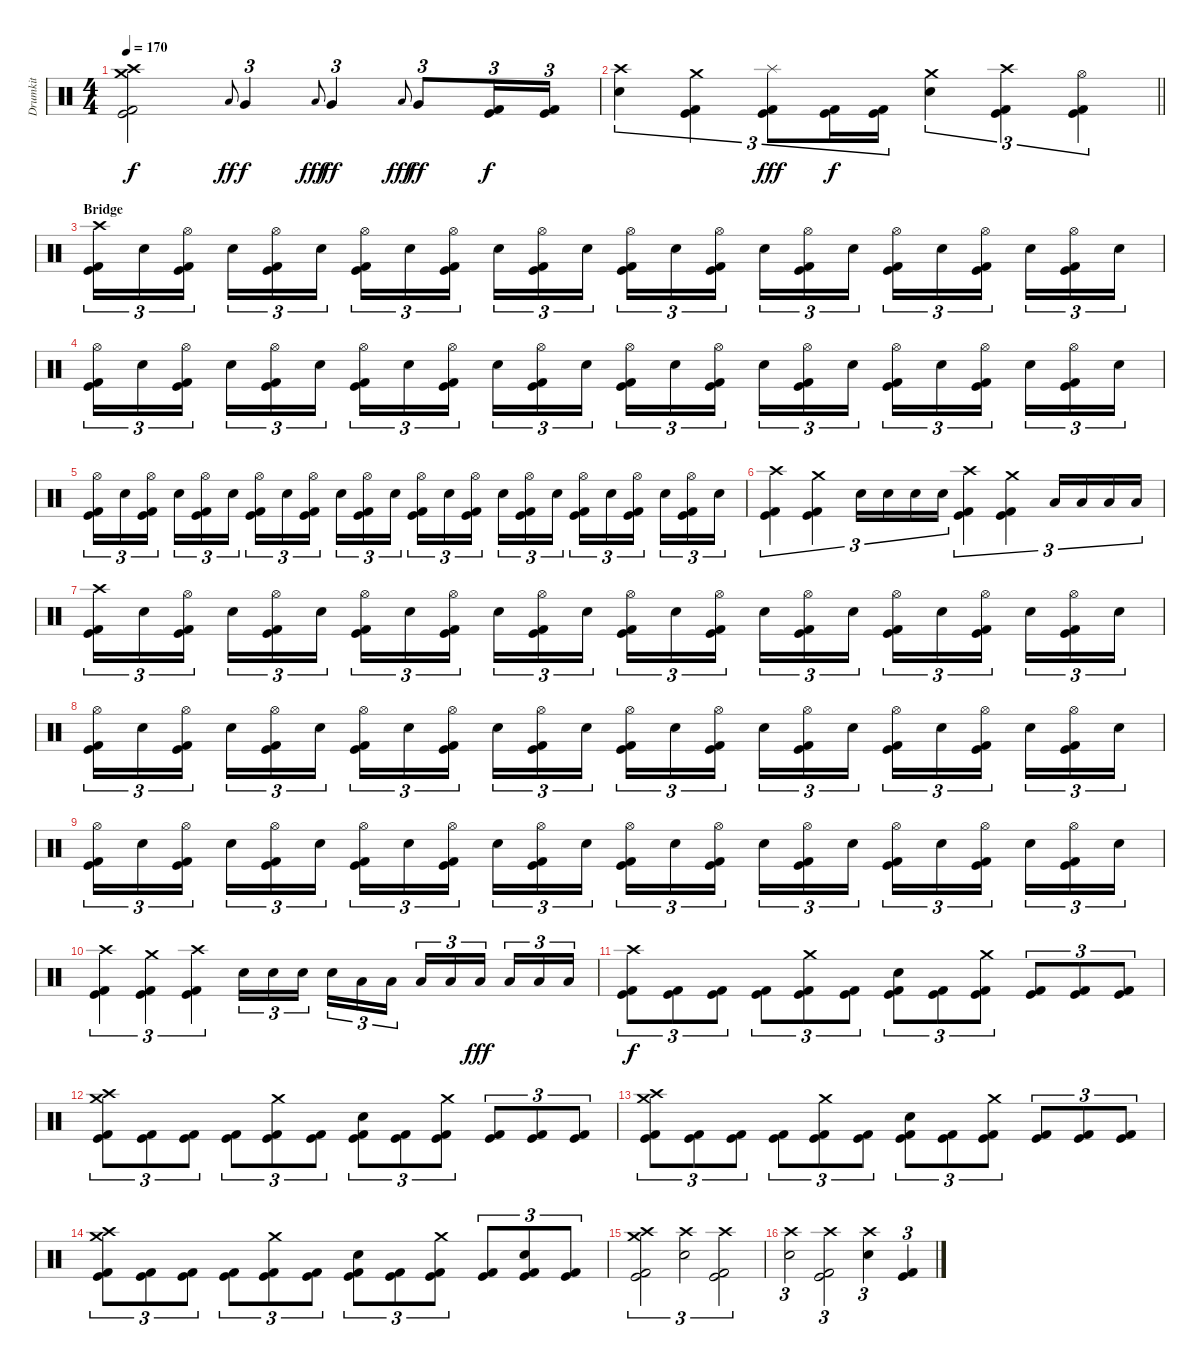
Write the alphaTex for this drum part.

\track ("Drumkit" "Drumkit") {instrument percussion}
\staff {score}
\articulation defaults
\ts (4 4)
\tempo 170
\clef neutral
\ks c
("Crash high (hit)" "Crash medium (hit)" "Kick (hit)" "Kick (hit) 2").2{dy f} "Low Floor Tom (hit)".8{gr onbeat dy ff} "Very Low Tom (hit)".4{tu (3 2) dy f} "Low Floor Tom (hit)".8{gr onbeat dy fff} "Very Low Tom (hit)".4{tu (3 2) dy ff} "Low Floor Tom (hit)".8{gr onbeat dy fff} "Very Low Tom (hit)".8{tu (3 2) dy ff} ("Kick (hit)" "Kick (hit) 2").16{tu (3 2) dy f} ("Kick (hit)" "Kick (hit) 2").16{tu (3 2)} |
\barLineRight lightlight
("Crash high (hit)" "Electric Snare (hit)").4{tu (3 2)} ("Crash medium (hit)" "Kick (hit)" "Kick (hit) 2").4{tu (3 2)} ("Splash (hit)" "Kick (hit)" "Kick (hit) 2").8{tu (3 2) dy fff} ("Kick (hit)" "Kick (hit) 2").16{tu (3 2) dy f} ("Kick (hit)" "Kick (hit) 2").16{tu (3 2)} ("Crash medium (hit)" "Electric Snare (hit)").4{tu (3 2)} ("Crash high (hit)" "Kick (hit)" "Kick (hit) 2").4{tu (3 2)} ("Hi-Hat (open)" "Kick (hit)" "Kick (hit) 2").4{tu (3 2)} |
\section ("" "Bridge")
("Crash high (hit)" "Kick (hit)" "Kick (hit) 2").16{tu (3 2)} "Electric Snare (hit)".16{tu (3 2)} ("Hi-Hat (open)" "Kick (hit)" "Kick (hit) 2").16{tu (3 2) beam splitsecondary} "Electric Snare (hit)".16{tu (3 2)} ("Hi-Hat (open)" "Kick (hit)" "Kick (hit) 2").16{tu (3 2)} "Electric Snare (hit)".16{tu (3 2)} ("Hi-Hat (open)" "Kick (hit)" "Kick (hit) 2").16{tu (3 2)} "Electric Snare (hit)".16{tu (3 2)} ("Hi-Hat (open)" "Kick (hit)" "Kick (hit) 2").16{tu (3 2) beam splitsecondary} "Electric Snare (hit)".16{tu (3 2)} ("Hi-Hat (open)" "Kick (hit)" "Kick (hit) 2").16{tu (3 2)} "Electric Snare (hit)".16{tu (3 2)} ("Hi-Hat (open)" "Kick (hit)" "Kick (hit) 2").16{tu (3 2)} "Electric Snare (hit)".16{tu (3 2)} ("Hi-Hat (open)" "Kick (hit)" "Kick (hit) 2").16{tu (3 2) beam splitsecondary} "Electric Snare (hit)".16{tu (3 2)} ("Hi-Hat (open)" "Kick (hit)" "Kick (hit) 2").16{tu (3 2)} "Electric Snare (hit)".16{tu (3 2)} ("Hi-Hat (open)" "Kick (hit)" "Kick (hit) 2").16{tu (3 2)} "Electric Snare (hit)".16{tu (3 2)} ("Hi-Hat (open)" "Kick (hit)" "Kick (hit) 2").16{tu (3 2) beam splitsecondary} "Electric Snare (hit)".16{tu (3 2)} ("Hi-Hat (open)" "Kick (hit)" "Kick (hit) 2").16{tu (3 2)} "Electric Snare (hit)".16{tu (3 2)} |
("Hi-Hat (open)" "Kick (hit)" "Kick (hit) 2").16{tu (3 2)} "Electric Snare (hit)".16{tu (3 2)} ("Hi-Hat (open)" "Kick (hit)" "Kick (hit) 2").16{tu (3 2) beam splitsecondary} "Electric Snare (hit)".16{tu (3 2)} ("Hi-Hat (open)" "Kick (hit)" "Kick (hit) 2").16{tu (3 2)} "Electric Snare (hit)".16{tu (3 2)} ("Hi-Hat (open)" "Kick (hit)" "Kick (hit) 2").16{tu (3 2)} "Electric Snare (hit)".16{tu (3 2)} ("Hi-Hat (open)" "Kick (hit)" "Kick (hit) 2").16{tu (3 2) beam splitsecondary} "Electric Snare (hit)".16{tu (3 2)} ("Hi-Hat (open)" "Kick (hit)" "Kick (hit) 2").16{tu (3 2)} "Electric Snare (hit)".16{tu (3 2)} ("Hi-Hat (open)" "Kick (hit)" "Kick (hit) 2").16{tu (3 2)} "Electric Snare (hit)".16{tu (3 2)} ("Hi-Hat (open)" "Kick (hit)" "Kick (hit) 2").16{tu (3 2) beam splitsecondary} "Electric Snare (hit)".16{tu (3 2)} ("Hi-Hat (open)" "Kick (hit)" "Kick (hit) 2").16{tu (3 2)} "Electric Snare (hit)".16{tu (3 2)} ("Hi-Hat (open)" "Kick (hit)" "Kick (hit) 2").16{tu (3 2)} "Electric Snare (hit)".16{tu (3 2)} ("Hi-Hat (open)" "Kick (hit)" "Kick (hit) 2").16{tu (3 2) beam splitsecondary} "Electric Snare (hit)".16{tu (3 2)} ("Hi-Hat (open)" "Kick (hit)" "Kick (hit) 2").16{tu (3 2)} "Electric Snare (hit)".16{tu (3 2)} |
("Hi-Hat (open)" "Kick (hit)" "Kick (hit) 2").16{tu (3 2)} "Electric Snare (hit)".16{tu (3 2)} ("Hi-Hat (open)" "Kick (hit)" "Kick (hit) 2").16{tu (3 2) beam splitsecondary} "Electric Snare (hit)".16{tu (3 2)} ("Hi-Hat (open)" "Kick (hit)" "Kick (hit) 2").16{tu (3 2)} "Electric Snare (hit)".16{tu (3 2)} ("Hi-Hat (open)" "Kick (hit)" "Kick (hit) 2").16{tu (3 2)} "Electric Snare (hit)".16{tu (3 2)} ("Hi-Hat (open)" "Kick (hit)" "Kick (hit) 2").16{tu (3 2) beam splitsecondary} "Electric Snare (hit)".16{tu (3 2)} ("Hi-Hat (open)" "Kick (hit)" "Kick (hit) 2").16{tu (3 2)} "Electric Snare (hit)".16{tu (3 2)} ("Hi-Hat (open)" "Kick (hit)" "Kick (hit) 2").16{tu (3 2)} "Electric Snare (hit)".16{tu (3 2)} ("Hi-Hat (open)" "Kick (hit)" "Kick (hit) 2").16{tu (3 2) beam splitsecondary} "Electric Snare (hit)".16{tu (3 2)} ("Hi-Hat (open)" "Kick (hit)" "Kick (hit) 2").16{tu (3 2)} "Electric Snare (hit)".16{tu (3 2)} ("Hi-Hat (open)" "Kick (hit)" "Kick (hit) 2").16{tu (3 2)} "Electric Snare (hit)".16{tu (3 2)} ("Hi-Hat (open)" "Kick (hit)" "Kick (hit) 2").16{tu (3 2) beam splitsecondary} "Electric Snare (hit)".16{tu (3 2)} ("Hi-Hat (open)" "Kick (hit)" "Kick (hit) 2").16{tu (3 2)} "Electric Snare (hit)".16{tu (3 2)} |
("Crash high (hit)" "Kick (hit)" "Kick (hit) 2").4{tu (3 2)} ("Crash medium (hit)" "Kick (hit)" "Kick (hit) 2").4{tu (3 2)} "Electric Snare (hit)".16{tu (3 2)} "Electric Snare (hit)".16{tu (3 2)} "Electric Snare (hit)".16{tu (3 2)} "Electric Snare (hit)".16{tu (3 2)} ("Crash high (hit)" "Kick (hit)" "Kick (hit) 2").4{tu (3 2)} ("Crash medium (hit)" "Kick (hit)" "Kick (hit) 2").4{tu (3 2)} "Low Tom (hit)".16{tu (3 2)} "Low Tom (hit)".16{tu (3 2)} "Low Tom (hit)".16{tu (3 2)} "Low Tom (hit)".16{tu (3 2)} |
("Crash high (hit)" "Kick (hit)" "Kick (hit) 2").16{tu (3 2)} "Electric Snare (hit)".16{tu (3 2)} ("Hi-Hat (open)" "Kick (hit)" "Kick (hit) 2").16{tu (3 2) beam splitsecondary} "Electric Snare (hit)".16{tu (3 2)} ("Hi-Hat (open)" "Kick (hit)" "Kick (hit) 2").16{tu (3 2)} "Electric Snare (hit)".16{tu (3 2)} ("Hi-Hat (open)" "Kick (hit)" "Kick (hit) 2").16{tu (3 2)} "Electric Snare (hit)".16{tu (3 2)} ("Hi-Hat (open)" "Kick (hit)" "Kick (hit) 2").16{tu (3 2) beam splitsecondary} "Electric Snare (hit)".16{tu (3 2)} ("Hi-Hat (open)" "Kick (hit)" "Kick (hit) 2").16{tu (3 2)} "Electric Snare (hit)".16{tu (3 2)} ("Hi-Hat (open)" "Kick (hit)" "Kick (hit) 2").16{tu (3 2)} "Electric Snare (hit)".16{tu (3 2)} ("Hi-Hat (open)" "Kick (hit)" "Kick (hit) 2").16{tu (3 2) beam splitsecondary} "Electric Snare (hit)".16{tu (3 2)} ("Hi-Hat (open)" "Kick (hit)" "Kick (hit) 2").16{tu (3 2)} "Electric Snare (hit)".16{tu (3 2)} ("Hi-Hat (open)" "Kick (hit)" "Kick (hit) 2").16{tu (3 2)} "Electric Snare (hit)".16{tu (3 2)} ("Hi-Hat (open)" "Kick (hit)" "Kick (hit) 2").16{tu (3 2) beam splitsecondary} "Electric Snare (hit)".16{tu (3 2)} ("Hi-Hat (open)" "Kick (hit)" "Kick (hit) 2").16{tu (3 2)} "Electric Snare (hit)".16{tu (3 2)} |
("Hi-Hat (open)" "Kick (hit)" "Kick (hit) 2").16{tu (3 2)} "Electric Snare (hit)".16{tu (3 2)} ("Hi-Hat (open)" "Kick (hit)" "Kick (hit) 2").16{tu (3 2) beam splitsecondary} "Electric Snare (hit)".16{tu (3 2)} ("Hi-Hat (open)" "Kick (hit)" "Kick (hit) 2").16{tu (3 2)} "Electric Snare (hit)".16{tu (3 2)} ("Hi-Hat (open)" "Kick (hit)" "Kick (hit) 2").16{tu (3 2)} "Electric Snare (hit)".16{tu (3 2)} ("Hi-Hat (open)" "Kick (hit)" "Kick (hit) 2").16{tu (3 2) beam splitsecondary} "Electric Snare (hit)".16{tu (3 2)} ("Hi-Hat (open)" "Kick (hit)" "Kick (hit) 2").16{tu (3 2)} "Electric Snare (hit)".16{tu (3 2)} ("Hi-Hat (open)" "Kick (hit)" "Kick (hit) 2").16{tu (3 2)} "Electric Snare (hit)".16{tu (3 2)} ("Hi-Hat (open)" "Kick (hit)" "Kick (hit) 2").16{tu (3 2) beam splitsecondary} "Electric Snare (hit)".16{tu (3 2)} ("Hi-Hat (open)" "Kick (hit)" "Kick (hit) 2").16{tu (3 2)} "Electric Snare (hit)".16{tu (3 2)} ("Hi-Hat (open)" "Kick (hit)" "Kick (hit) 2").16{tu (3 2)} "Electric Snare (hit)".16{tu (3 2)} ("Hi-Hat (open)" "Kick (hit)" "Kick (hit) 2").16{tu (3 2) beam splitsecondary} "Electric Snare (hit)".16{tu (3 2)} ("Hi-Hat (open)" "Kick (hit)" "Kick (hit) 2").16{tu (3 2)} "Electric Snare (hit)".16{tu (3 2)} |
("Hi-Hat (open)" "Kick (hit)" "Kick (hit) 2").16{tu (3 2)} "Electric Snare (hit)".16{tu (3 2)} ("Hi-Hat (open)" "Kick (hit)" "Kick (hit) 2").16{tu (3 2) beam splitsecondary} "Electric Snare (hit)".16{tu (3 2)} ("Hi-Hat (open)" "Kick (hit)" "Kick (hit) 2").16{tu (3 2)} "Electric Snare (hit)".16{tu (3 2)} ("Hi-Hat (open)" "Kick (hit)" "Kick (hit) 2").16{tu (3 2)} "Electric Snare (hit)".16{tu (3 2)} ("Hi-Hat (open)" "Kick (hit)" "Kick (hit) 2").16{tu (3 2) beam splitsecondary} "Electric Snare (hit)".16{tu (3 2)} ("Hi-Hat (open)" "Kick (hit)" "Kick (hit) 2").16{tu (3 2)} "Electric Snare (hit)".16{tu (3 2)} ("Hi-Hat (open)" "Kick (hit)" "Kick (hit) 2").16{tu (3 2)} "Electric Snare (hit)".16{tu (3 2)} ("Hi-Hat (open)" "Kick (hit)" "Kick (hit) 2").16{tu (3 2) beam splitsecondary} "Electric Snare (hit)".16{tu (3 2)} ("Hi-Hat (open)" "Kick (hit)" "Kick (hit) 2").16{tu (3 2)} "Electric Snare (hit)".16{tu (3 2)} ("Hi-Hat (open)" "Kick (hit)" "Kick (hit) 2").16{tu (3 2)} "Electric Snare (hit)".16{tu (3 2)} ("Hi-Hat (open)" "Kick (hit)" "Kick (hit) 2").16{tu (3 2) beam splitsecondary} "Electric Snare (hit)".16{tu (3 2)} ("Hi-Hat (open)" "Kick (hit)" "Kick (hit) 2").16{tu (3 2)} "Electric Snare (hit)".16{tu (3 2)} |
("Crash high (hit)" "Kick (hit)" "Kick (hit) 2").4{tu (3 2)} ("Crash medium (hit)" "Kick (hit)" "Kick (hit) 2").4{tu (3 2)} ("Crash high (hit)" "Kick (hit)" "Kick (hit) 2").4{tu (3 2)} "Electric Snare (hit)".16{tu (3 2)} "Electric Snare (hit)".16{tu (3 2)} "Electric Snare (hit)".16{tu (3 2) beam splitsecondary} "Electric Snare (hit)".16{tu (3 2)} "Low Tom (hit)".16{tu (3 2)} "Low Tom (hit)".16{tu (3 2)} "Low Tom (hit)".16{tu (3 2)} "Low Tom (hit)".16{tu (3 2)} "Low Floor Tom (hit)".16{tu (3 2) dy fff beam splitsecondary} "Low Floor Tom (hit)".16{tu (3 2)} "Low Floor Tom (hit)".16{tu (3 2)} "Low Floor Tom (hit)".16{tu (3 2)} |
("Crash high (hit)" "Kick (hit)" "Kick (hit) 2").8{tu (3 2) dy f} ("Kick (hit)" "Kick (hit) 2").8{tu (3 2)} ("Kick (hit)" "Kick (hit) 2").8{tu (3 2)} ("Kick (hit)" "Kick (hit) 2").8{tu (3 2)} ("Crash medium (hit)" "Kick (hit)" "Kick (hit) 2").8{tu (3 2)} ("Kick (hit)" "Kick (hit) 2").8{tu (3 2)} ("Electric Snare (hit)" "Kick (hit)" "Kick (hit) 2").8{tu (3 2)} ("Kick (hit)" "Kick (hit) 2").8{tu (3 2)} ("Crash medium (hit)" "Kick (hit)" "Kick (hit) 2").8{tu (3 2)} ("Kick (hit)" "Kick (hit) 2").8{tu (3 2)} ("Kick (hit)" "Kick (hit) 2").8{tu (3 2)} ("Kick (hit)" "Kick (hit) 2").8{tu (3 2)} |
("Crash high (hit)" "Crash medium (hit)" "Kick (hit)" "Kick (hit) 2").8{tu (3 2)} ("Kick (hit)" "Kick (hit) 2").8{tu (3 2)} ("Kick (hit)" "Kick (hit) 2").8{tu (3 2)} ("Kick (hit)" "Kick (hit) 2").8{tu (3 2)} ("Crash medium (hit)" "Kick (hit)" "Kick (hit) 2").8{tu (3 2)} ("Kick (hit)" "Kick (hit) 2").8{tu (3 2)} ("Electric Snare (hit)" "Kick (hit)" "Kick (hit) 2").8{tu (3 2)} ("Kick (hit)" "Kick (hit) 2").8{tu (3 2)} ("Crash medium (hit)" "Kick (hit)" "Kick (hit) 2").8{tu (3 2)} ("Kick (hit)" "Kick (hit) 2").8{tu (3 2)} ("Kick (hit)" "Kick (hit) 2").8{tu (3 2)} ("Kick (hit)" "Kick (hit) 2").8{tu (3 2)} |
("Crash high (hit)" "Crash medium (hit)" "Kick (hit)" "Kick (hit) 2").8{tu (3 2)} ("Kick (hit)" "Kick (hit) 2").8{tu (3 2)} ("Kick (hit)" "Kick (hit) 2").8{tu (3 2)} ("Kick (hit)" "Kick (hit) 2").8{tu (3 2)} ("Crash medium (hit)" "Kick (hit)" "Kick (hit) 2").8{tu (3 2)} ("Kick (hit)" "Kick (hit) 2").8{tu (3 2)} ("Electric Snare (hit)" "Kick (hit)" "Kick (hit) 2").8{tu (3 2)} ("Kick (hit)" "Kick (hit) 2").8{tu (3 2)} ("Crash medium (hit)" "Kick (hit)" "Kick (hit) 2").8{tu (3 2)} ("Kick (hit)" "Kick (hit) 2").8{tu (3 2)} ("Kick (hit)" "Kick (hit) 2").8{tu (3 2)} ("Kick (hit)" "Kick (hit) 2").8{tu (3 2)} |
("Crash high (hit)" "Crash medium (hit)" "Kick (hit)" "Kick (hit) 2").8{tu (3 2)} ("Kick (hit)" "Kick (hit) 2").8{tu (3 2)} ("Kick (hit)" "Kick (hit) 2").8{tu (3 2)} ("Kick (hit)" "Kick (hit) 2").8{tu (3 2)} ("Crash medium (hit)" "Kick (hit)" "Kick (hit) 2").8{tu (3 2)} ("Kick (hit)" "Kick (hit) 2").8{tu (3 2)} ("Electric Snare (hit)" "Kick (hit)" "Kick (hit) 2").8{tu (3 2)} ("Kick (hit)" "Kick (hit) 2").8{tu (3 2)} ("Crash medium (hit)" "Kick (hit)" "Kick (hit) 2").8{tu (3 2)} ("Kick (hit)" "Kick (hit) 2").8{tu (3 2)} ("Electric Snare (hit)" "Kick (hit)" "Kick (hit) 2").8{tu (3 2)} ("Kick (hit)" "Kick (hit) 2").8{tu (3 2)} |
("Crash high (hit)" "Crash medium (hit)" "Kick (hit)" "Kick (hit) 2").2{tu (3 2)} ("Crash high (hit)" "Electric Snare (hit)").2{tu (3 2)} ("Crash high (hit)" "Kick (hit)" "Kick (hit) 2").2{tu (3 2)} |
("Crash high (hit)" "Electric Snare (hit)").2{tu (3 2)} ("Crash high (hit)" "Kick (hit)" "Kick (hit) 2").2{tu (3 2)} ("Crash high (hit)" "Electric Snare (hit)").4{tu (3 2)} ("Kick (hit)" "Kick (hit) 2").4{tu (3 2)}
